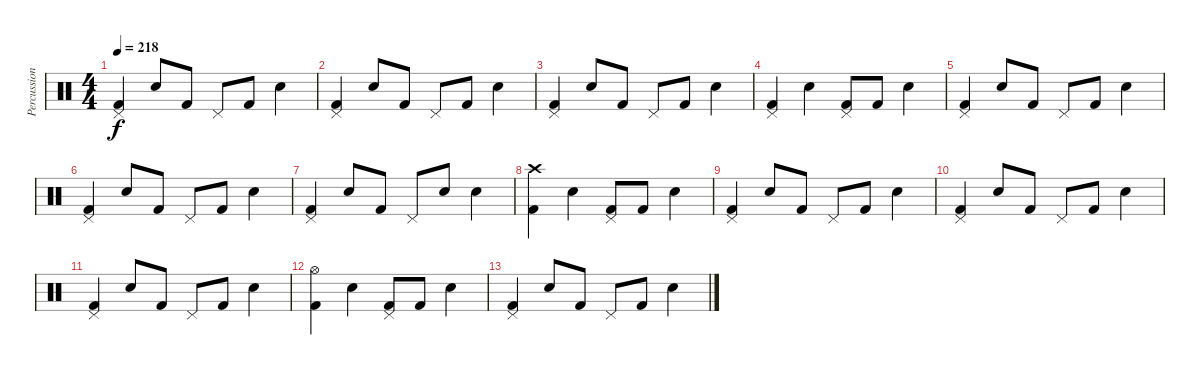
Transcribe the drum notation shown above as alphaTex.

\track ("Percussion" "Percussion") {instrument percussion}
\staff {score}
\articulation defaults
\ts (4 4)
\tempo 218
\clef neutral
\ks c
("Kick (hit) 2" "Pedal Hi-Hat (hit)").4{dy f} "Snare (hit) 2".8 "Kick (hit) 2".8 "Pedal Hi-Hat (hit)".8 "Kick (hit) 2".8 "Snare (hit) 2".4 |
("Kick (hit) 2" "Pedal Hi-Hat (hit)").4 "Snare (hit) 2".8 "Kick (hit) 2".8 "Pedal Hi-Hat (hit)".8 "Kick (hit) 2".8 "Snare (hit) 2".4 |
("Kick (hit) 2" "Pedal Hi-Hat (hit)").4 "Snare (hit) 2".8 "Kick (hit) 2".8 "Pedal Hi-Hat (hit)".8 "Kick (hit) 2".8 "Snare (hit) 2".4 |
("Kick (hit) 2" "Pedal Hi-Hat (hit)").4 "Snare (hit) 2".4 ("Kick (hit) 2" "Pedal Hi-Hat (hit)").8 "Kick (hit) 2".8 "Snare (hit) 2".4 |
("Kick (hit) 2" "Pedal Hi-Hat (hit)").4 "Snare (hit) 2".8 "Kick (hit) 2".8 "Pedal Hi-Hat (hit)".8 "Kick (hit) 2".8 "Snare (hit) 2".4 |
("Kick (hit) 2" "Pedal Hi-Hat (hit)").4 "Snare (hit) 2".8 "Kick (hit) 2".8 "Pedal Hi-Hat (hit)".8 "Kick (hit) 2".8 "Snare (hit) 2".4 |
("Kick (hit) 2" "Pedal Hi-Hat (hit)").4 "Snare (hit) 2".8 "Kick (hit) 2".8 "Pedal Hi-Hat (hit)".8 "Snare (hit) 2".8 "Snare (hit) 2".4 |
("Kick (hit) 2" "Crash high (hit)").4 "Snare (hit) 2".4 ("Kick (hit) 2" "Pedal Hi-Hat (hit)").8 "Kick (hit) 2".8 "Snare (hit) 2".4 |
("Kick (hit) 2" "Pedal Hi-Hat (hit)").4 "Snare (hit) 2".8 "Kick (hit) 2".8 "Pedal Hi-Hat (hit)".8 "Kick (hit) 2".8 "Snare (hit) 2".4 |
("Kick (hit) 2" "Pedal Hi-Hat (hit)").4 "Snare (hit) 2".8 "Kick (hit) 2".8 "Pedal Hi-Hat (hit)".8 "Kick (hit) 2".8 "Snare (hit) 2".4 |
("Kick (hit) 2" "Pedal Hi-Hat (hit)").4 "Snare (hit) 2".8 "Kick (hit) 2".8 "Pedal Hi-Hat (hit)".8 "Kick (hit) 2".8 "Snare (hit) 2".4 |
("Kick (hit) 2" "Hi-Hat (open)").4 "Snare (hit) 2".4 ("Kick (hit) 2" "Pedal Hi-Hat (hit)").8 "Kick (hit) 2".8 "Snare (hit) 2".4 |
("Kick (hit) 2" "Pedal Hi-Hat (hit)").4 "Snare (hit) 2".8 "Kick (hit) 2".8 "Pedal Hi-Hat (hit)".8 "Kick (hit) 2".8 "Snare (hit) 2".4
